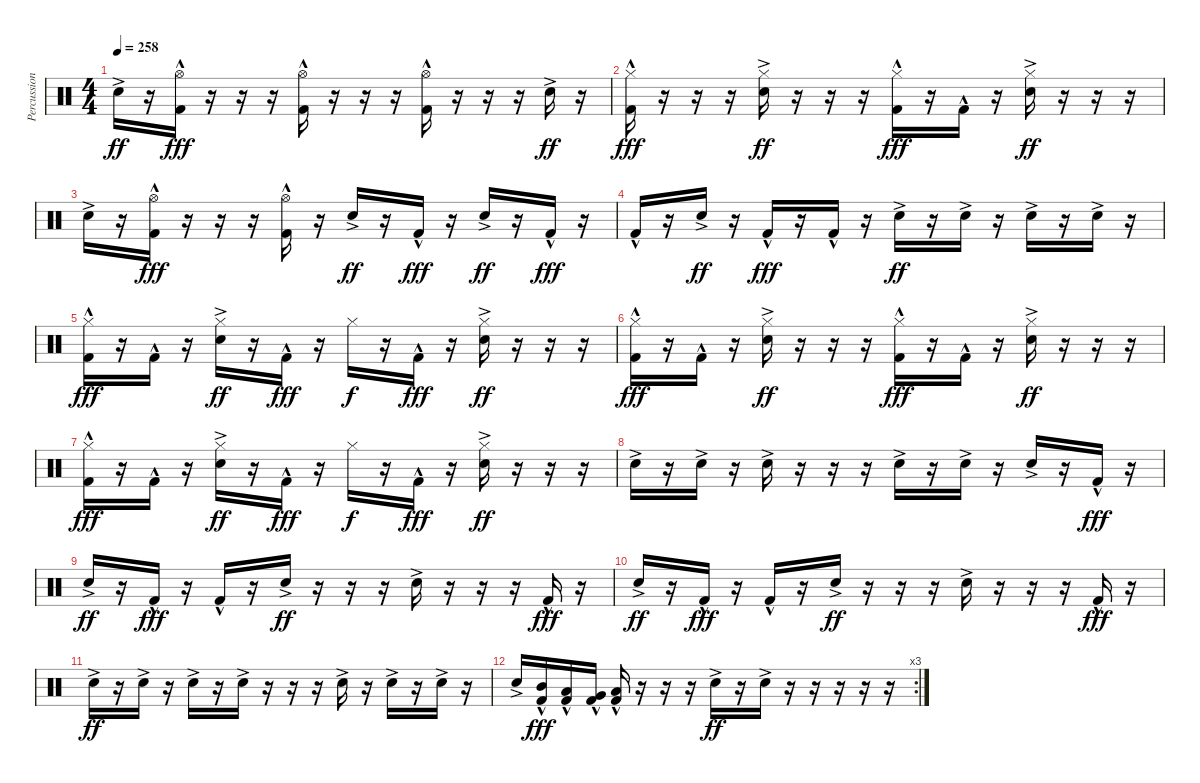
\track ("Percussion" "Percussion") {instrument percussion bank 2}
\staff {score}
\articulation defaults
\ts (4 4)
\tempo 258
\clef neutral
\ks c "Snare (hit) 2"{ac}.16{dy ff}
r.16 ("Hi-Hat (open)" "Kick (hit) 2"{hac}).16{dy fff} r.16 r.16 r.16 ("Hi-Hat (open)" "Kick (hit) 2"{hac}).16 r.16 r.16 r.16 ("Hi-Hat (open)" "Kick (hit) 2"{hac}).16 r.16 r.16 r.16 "Snare (hit) 2"{ac}.16{dy ff} r.16 |
("Hi-Hat (closed)" "Kick (hit) 2"{hac}).16{dy fff} r.16 r.16 r.16 ("Hi-Hat (closed)" "Snare (hit) 2"{ac}).16{dy ff} r.16 r.16 r.16 ("Hi-Hat (closed)" "Kick (hit) 2"{hac}).16{dy fff} r.16 "Kick (hit) 2"{hac}.16 r.16 ("Hi-Hat (closed)" "Snare (hit) 2"{ac}).16{dy ff} r.16 r.16 r.16 |
"Snare (hit) 2"{ac}.16 r.16 ("Hi-Hat (open)" "Kick (hit) 2"{hac}).16{dy fff} r.16 r.16 r.16 ("Hi-Hat (open)" "Kick (hit) 2"{hac}).16 r.16 "Snare (hit) 2"{ac}.16{dy ff} r.16 "Kick (hit) 2"{hac}.16{dy fff} r.16 "Snare (hit) 2"{ac}.16{dy ff} r.16 "Kick (hit) 2"{hac}.16{dy fff} r.16 |
"Kick (hit) 2"{hac}.16 r.16 "Snare (hit) 2"{ac}.16{dy ff} r.16 "Kick (hit) 2"{hac}.16{dy fff} r.16 "Kick (hit) 2"{hac}.16 r.16 "Snare (hit) 2"{ac}.16{dy ff} r.16 "Snare (hit) 2"{ac}.16 r.16 "Snare (hit) 2"{ac}.16 r.16 "Snare (hit) 2"{ac}.16 r.16 |
("Hi-Hat (closed)" "Kick (hit) 2"{hac}).16{dy fff} r.16 "Kick (hit) 2"{hac}.16 r.16 ("Hi-Hat (closed)" "Snare (hit) 2"{ac}).16{dy ff} r.16 "Kick (hit) 2"{hac}.16{dy fff} r.16 "Hi-Hat (closed)".16{dy f} r.16 "Kick (hit) 2"{hac}.16{dy fff} r.16 ("Hi-Hat (closed)" "Snare (hit) 2"{ac}).16{dy ff} r.16 r.16 r.16 |
("Hi-Hat (closed)" "Kick (hit) 2"{hac}).16{dy fff} r.16 "Kick (hit) 2"{hac}.16 r.16 ("Hi-Hat (closed)" "Snare (hit) 2"{ac}).16{dy ff} r.16 r.16 r.16 ("Hi-Hat (closed)" "Kick (hit) 2"{hac}).16{dy fff} r.16 "Kick (hit) 2"{hac}.16 r.16 ("Hi-Hat (closed)" "Snare (hit) 2"{ac}).16{dy ff} r.16 r.16 r.16 |
("Hi-Hat (closed)" "Kick (hit) 2"{hac}).16{dy fff} r.16 "Kick (hit) 2"{hac}.16 r.16 ("Hi-Hat (closed)" "Snare (hit) 2"{ac}).16{dy ff} r.16 "Kick (hit) 2"{hac}.16{dy fff} r.16 "Hi-Hat (closed)".16{dy f} r.16 "Kick (hit) 2"{hac}.16{dy fff} r.16 ("Hi-Hat (closed)" "Snare (hit) 2"{ac}).16{dy ff} r.16 r.16 r.16 |
"Snare (hit) 2"{ac}.16 r.16 "Snare (hit) 2"{ac}.16 r.16 "Snare (hit) 2"{ac}.16 r.16 r.16 r.16 "Snare (hit) 2"{ac}.16 r.16 "Snare (hit) 2"{ac}.16 r.16 "Snare (hit) 2"{ac}.16 r.16 "Kick (hit) 2"{hac}.16{dy fff} r.16 |
"Snare (hit) 2"{ac}.16{dy ff} r.16 "Kick (hit) 2"{hac}.16{dy fff} r.16 "Kick (hit) 2"{hac}.16 r.16 "Snare (hit) 2"{ac}.16{dy ff} r.16 r.16 r.16 "Snare (hit) 2"{ac}.16 r.16 r.16 r.16 "Kick (hit) 2"{hac}.16{dy fff} r.16 |
"Snare (hit) 2"{ac}.16{dy ff} r.16 "Kick (hit) 2"{hac}.16{dy fff} r.16 "Kick (hit) 2"{hac}.16 r.16 "Snare (hit) 2"{ac}.16{dy ff} r.16 r.16 r.16 "Snare (hit) 2"{ac}.16 r.16 r.16 r.16 "Kick (hit) 2"{hac}.16{dy fff} r.16 |
"Snare (hit) 2"{ac}.16{dy ff} r.16 "Snare (hit) 2"{ac}.16 r.16 "Snare (hit) 2"{ac}.16 r.16 "Snare (hit) 2"{ac}.16 r.16 r.16 r.16 "Snare (hit) 2"{ac}.16 r.16 "Snare (hit) 2"{ac}.16 r.16 "Snare (hit) 2"{ac}.16 r.16 |
\rc 3 "Snare (hit) 2"{ac}.16
("Mid Tom (hit)"{hac} "Kick (hit) 2"{hac}).16{dy fff} ("Low Tom (hit)"{hac} "Kick (hit) 2"{hac}).16 ("Very Low Tom (hit)"{hac} "Kick (hit) 2"{hac}).16 ("Low Floor Tom (hit)"{hac} "Kick (hit) 2"{hac}).16 r.16 r.16 r.16 "Snare (hit) 2"{ac}.16{dy ff} r.16 "Snare (hit) 2"{ac}.16 r.16 r.16 r.16 r.16 r.16
